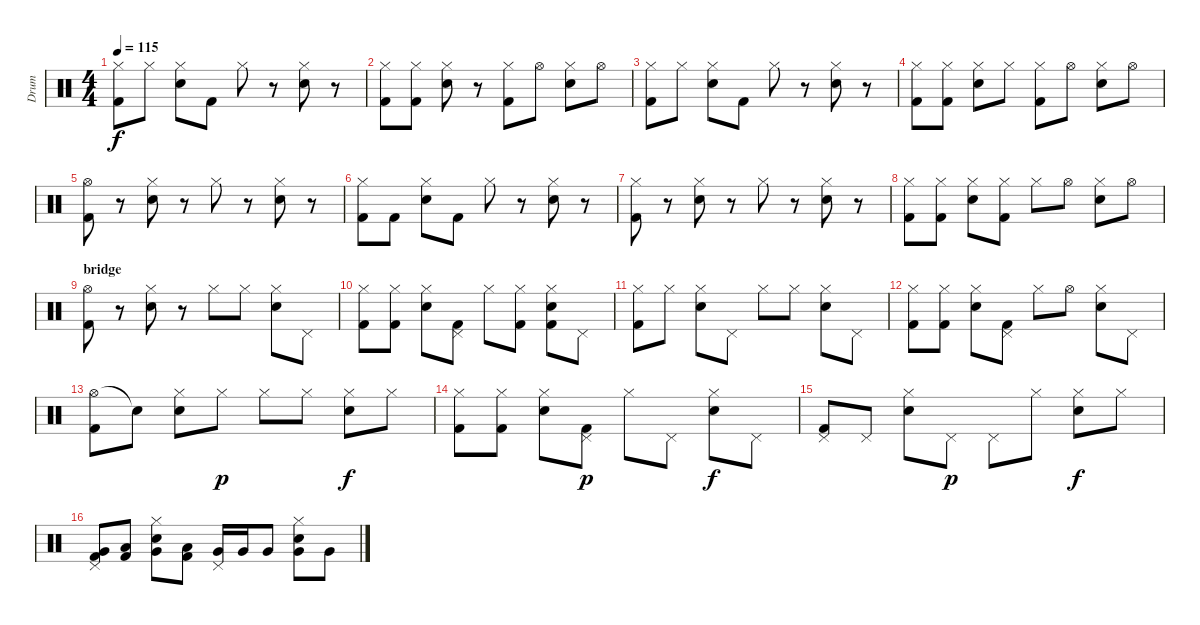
\track ("Drum" "Drum") {instrument percussion}
\staff {score}
\articulation defaults
\ts (4 4)
\tempo 115
\clef neutral
\ks c
("Hi-Hat (closed)" "Kick (hit) 2").8{dy f} "Hi-Hat (closed)".8 ("Hi-Hat (closed)" "Electric Snare (hit)").8 "Kick (hit) 2".8 "Hi-Hat (closed)".8 r.8 ("Hi-Hat (closed)" "Electric Snare (hit)").8 r.8 |
("Hi-Hat (closed)" "Kick (hit) 2").8 ("Hi-Hat (closed)" "Kick (hit) 2").8 ("Hi-Hat (closed)" "Electric Snare (hit)").8 r.8 ("Hi-Hat (closed)" "Kick (hit) 2").8 "Hi-Hat (open)".8 ("Hi-Hat (closed)" "Electric Snare (hit)").8 "Hi-Hat (open)".8 |
("Hi-Hat (closed)" "Kick (hit) 2").8 "Hi-Hat (closed)".8 ("Hi-Hat (closed)" "Electric Snare (hit)").8 "Kick (hit) 2".8 "Hi-Hat (closed)".8 r.8 ("Hi-Hat (closed)" "Electric Snare (hit)").8 r.8 |
("Hi-Hat (closed)" "Kick (hit) 2").8 ("Hi-Hat (closed)" "Kick (hit) 2").8 ("Hi-Hat (closed)" "Electric Snare (hit)").8 "Hi-Hat (closed)".8 ("Hi-Hat (closed)" "Kick (hit) 2").8 "Hi-Hat (open)".8 ("Hi-Hat (closed)" "Electric Snare (hit)").8 "Hi-Hat (open)".8 |
("Hi-Hat (open)" "Kick (hit) 2").8 r.8 ("Hi-Hat (closed)" "Electric Snare (hit)").8 r.8 "Hi-Hat (closed)".8 r.8 ("Hi-Hat (closed)" "Electric Snare (hit)").8 r.8 |
("Hi-Hat (closed)" "Kick (hit) 2").8 "Kick (hit) 2".8 ("Hi-Hat (closed)" "Electric Snare (hit)").8 "Kick (hit) 2".8 "Hi-Hat (closed)".8 r.8 ("Hi-Hat (closed)" "Electric Snare (hit)").8 r.8 |
("Hi-Hat (closed)" "Kick (hit) 2").8 r.8 ("Hi-Hat (closed)" "Electric Snare (hit)").8 r.8 "Hi-Hat (closed)".8 r.8 ("Hi-Hat (closed)" "Electric Snare (hit)").8 r.8 |
("Hi-Hat (closed)" "Kick (hit) 2").8 ("Hi-Hat (closed)" "Kick (hit) 2").8 ("Hi-Hat (closed)" "Electric Snare (hit)").8 ("Hi-Hat (closed)" "Kick (hit) 2").8 "Hi-Hat (closed)".8 "Hi-Hat (open)".8 ("Hi-Hat (closed)" "Electric Snare (hit)").8 "Hi-Hat (open)".8 |
\section ("" "bridge")
("Hi-Hat (open)" "Kick (hit) 2").8 r.8 ("Hi-Hat (closed)" "Electric Snare (hit)").8 r.8 "Hi-Hat (closed)".8 "Hi-Hat (closed)".8 ("Hi-Hat (closed)" "Electric Snare (hit)").8 "Pedal Hi-Hat (hit)".8 |
("Hi-Hat (closed)" "Kick (hit) 2").8 ("Hi-Hat (closed)" "Kick (hit) 2").8 ("Hi-Hat (closed)" "Electric Snare (hit)").8 ("Pedal Hi-Hat (hit)" "Kick (hit) 2").8 "Hi-Hat (closed)".8 ("Hi-Hat (closed)" "Kick (hit) 2").8 ("Hi-Hat (closed)" "Electric Snare (hit)" "Kick (hit) 2").8 "Pedal Hi-Hat (hit)".8 |
("Hi-Hat (closed)" "Kick (hit) 2").8 "Hi-Hat (closed)".8 ("Hi-Hat (closed)" "Electric Snare (hit)").8 "Pedal Hi-Hat (hit)".8 "Hi-Hat (closed)".8 "Hi-Hat (closed)".8 ("Hi-Hat (closed)" "Electric Snare (hit)").8 "Pedal Hi-Hat (hit)".8 |
("Hi-Hat (closed)" "Kick (hit) 2").8 ("Hi-Hat (closed)" "Kick (hit) 2").8 ("Hi-Hat (closed)" "Electric Snare (hit)").8 ("Pedal Hi-Hat (hit)" "Kick (hit) 2").8 "Hi-Hat (closed)".8 "Hi-Hat (open)".8 ("Hi-Hat (closed)" "Electric Snare (hit)").8 "Pedal Hi-Hat (hit)".8 |
("Hi-Hat (open)" "Kick (hit) 2").8 "Snare (hit)"{t}.8 ("Hi-Hat (closed)" "Electric Snare (hit)").8 "Hi-Hat (closed)".8{dy p} "Hi-Hat (closed)".8 "Hi-Hat (closed)".8 ("Hi-Hat (closed)" "Electric Snare (hit)").8{dy f} "Hi-Hat (closed)".8 |
("Hi-Hat (closed)" "Kick (hit) 2").8 ("Hi-Hat (closed)" "Kick (hit) 2").8 ("Hi-Hat (closed)" "Electric Snare (hit)").8 ("Pedal Hi-Hat (hit)" "Kick (hit) 2").8{dy p} "Hi-Hat (closed)".8 "Pedal Hi-Hat (hit)".8 ("Hi-Hat (closed)" "Electric Snare (hit)").8{dy f} "Pedal Hi-Hat (hit)".8 |
("Pedal Hi-Hat (hit)" "Kick (hit) 2").8 "Pedal Hi-Hat (hit)".8 ("Hi-Hat (closed)" "Electric Snare (hit)").8 "Pedal Hi-Hat (hit)".8{dy p} "Pedal Hi-Hat (hit)".8 "Hi-Hat (closed)".8 ("Hi-Hat (closed)" "Electric Snare (hit)").8{dy f} "Hi-Hat (closed)".8 |
("Pedal Hi-Hat (hit)" "Very Low Tom (hit)" "Kick (hit) 2").8 ("Low Floor Tom (hit)" "Kick (hit) 2").8 ("Hi-Hat (closed)" "Very Low Tom (hit)" "Electric Snare (hit)").8 ("Low Floor Tom (hit)" "Kick (hit) 2").8 ("Pedal Hi-Hat (hit)" "Very Low Tom (hit)").16 "Very Low Tom (hit)".16 "Very Low Tom (hit)".8 ("Hi-Hat (closed)" "Very Low Tom (hit)" "Electric Snare (hit)").8 "Very Low Tom (hit)".8
